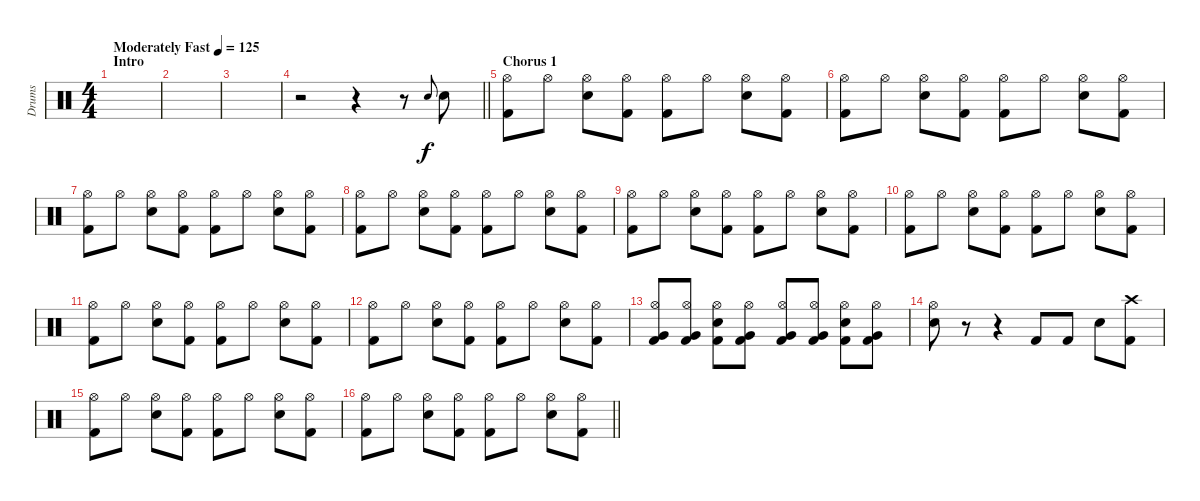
\track ("Drums" "Drums") {instrument percussion}
\staff {score}
\articulation defaults
\ts (4 4)
\section ("" "Intro")
\tempo (125 "Moderately Fast")
\clef neutral
\ks c
|
|
|
\barLineRight lightlight
r.2 r.4 r.8 "Snare (hit) 2"{h}.8{gr onbeat} "Electric Snare (hit)".8 |
\section ("" "Chorus 1")
("Kick (hit) 2" "Hi-Hat (open)").8 "Hi-Hat (open)".8 ("Electric Snare (hit)" "Hi-Hat (open)").8 ("Kick (hit) 2" "Hi-Hat (open)").8 ("Kick (hit) 2" "Hi-Hat (open)").8 "Hi-Hat (open)".8 ("Electric Snare (hit)" "Hi-Hat (open)").8 ("Kick (hit) 2" "Hi-Hat (open)").8 |
("Kick (hit) 2" "Hi-Hat (open)").8 "Hi-Hat (open)".8 ("Electric Snare (hit)" "Hi-Hat (open)").8 ("Kick (hit) 2" "Hi-Hat (open)").8 ("Kick (hit) 2" "Hi-Hat (open)").8 "Hi-Hat (open)".8 ("Electric Snare (hit)" "Hi-Hat (open)").8 ("Kick (hit) 2" "Hi-Hat (open)").8 |
("Kick (hit) 2" "Hi-Hat (open)").8 "Hi-Hat (open)".8 ("Electric Snare (hit)" "Hi-Hat (open)").8 ("Kick (hit) 2" "Hi-Hat (open)").8 ("Kick (hit) 2" "Hi-Hat (open)").8 "Hi-Hat (open)".8 ("Electric Snare (hit)" "Hi-Hat (open)").8 ("Kick (hit) 2" "Hi-Hat (open)").8 |
("Kick (hit) 2" "Hi-Hat (open)").8 "Hi-Hat (open)".8 ("Electric Snare (hit)" "Hi-Hat (open)").8 ("Kick (hit) 2" "Hi-Hat (open)").8 ("Kick (hit) 2" "Hi-Hat (open)").8 "Hi-Hat (open)".8 ("Electric Snare (hit)" "Hi-Hat (open)").8 ("Kick (hit) 2" "Hi-Hat (open)").8 |
("Kick (hit) 2" "Hi-Hat (open)").8 "Hi-Hat (open)".8 ("Electric Snare (hit)" "Hi-Hat (open)").8 ("Kick (hit) 2" "Hi-Hat (open)").8 ("Kick (hit) 2" "Hi-Hat (open)").8 "Hi-Hat (open)".8 ("Electric Snare (hit)" "Hi-Hat (open)").8 ("Kick (hit) 2" "Hi-Hat (open)").8 |
("Kick (hit) 2" "Hi-Hat (open)").8 "Hi-Hat (open)".8 ("Electric Snare (hit)" "Hi-Hat (open)").8 ("Kick (hit) 2" "Hi-Hat (open)").8 ("Kick (hit) 2" "Hi-Hat (open)").8 "Hi-Hat (open)".8 ("Electric Snare (hit)" "Hi-Hat (open)").8 ("Kick (hit) 2" "Hi-Hat (open)").8 |
("Kick (hit) 2" "Hi-Hat (open)").8 "Hi-Hat (open)".8 ("Electric Snare (hit)" "Hi-Hat (open)").8 ("Kick (hit) 2" "Hi-Hat (open)").8 ("Kick (hit) 2" "Hi-Hat (open)").8 "Hi-Hat (open)".8 ("Electric Snare (hit)" "Hi-Hat (open)").8 ("Kick (hit) 2" "Hi-Hat (open)").8 |
("Kick (hit) 2" "Hi-Hat (open)").8 "Hi-Hat (open)".8 ("Electric Snare (hit)" "Hi-Hat (open)").8 ("Kick (hit) 2" "Hi-Hat (open)").8 ("Kick (hit) 2" "Hi-Hat (open)").8 "Hi-Hat (open)".8 ("Electric Snare (hit)" "Hi-Hat (open)").8 ("Kick (hit) 2" "Hi-Hat (open)").8 |
("Very Low Tom (hit)" "Kick (hit) 2" "Hi-Hat (open)").8 ("Very Low Tom (hit)" "Kick (hit) 2" "Hi-Hat (open)").8 ("Electric Snare (hit)" "Kick (hit) 2" "Hi-Hat (open)").8 ("Very Low Tom (hit)" "Kick (hit) 2" "Hi-Hat (open)").8 ("Very Low Tom (hit)" "Kick (hit) 2" "Hi-Hat (open)").8 ("Very Low Tom (hit)" "Kick (hit) 2" "Hi-Hat (open)").8 ("Electric Snare (hit)" "Kick (hit) 2" "Hi-Hat (open)").8 ("Very Low Tom (hit)" "Kick (hit) 2" "Hi-Hat (open)").8 |
("Electric Snare (hit)" "Hi-Hat (open)").8 r.8 r.4 "Kick (hit) 2".8 "Kick (hit) 2".8 "Electric Snare (hit)".8 ("Kick (hit) 2" "Crash high (hit)").8 |
("Kick (hit) 2" "Hi-Hat (open)").8 "Hi-Hat (open)".8 ("Electric Snare (hit)" "Hi-Hat (open)").8 ("Kick (hit) 2" "Hi-Hat (open)").8 ("Kick (hit) 2" "Hi-Hat (open)").8 "Hi-Hat (open)".8 ("Electric Snare (hit)" "Hi-Hat (open)").8 ("Kick (hit) 2" "Hi-Hat (open)").8 |
\barLineRight lightlight
("Kick (hit) 2" "Hi-Hat (open)").8 "Hi-Hat (open)".8 ("Electric Snare (hit)" "Hi-Hat (open)").8 ("Kick (hit) 2" "Hi-Hat (open)").8 ("Kick (hit) 2" "Hi-Hat (open)").8 "Hi-Hat (open)".8 ("Electric Snare (hit)" "Hi-Hat (open)").8 ("Kick (hit) 2" "Hi-Hat (open)").8
